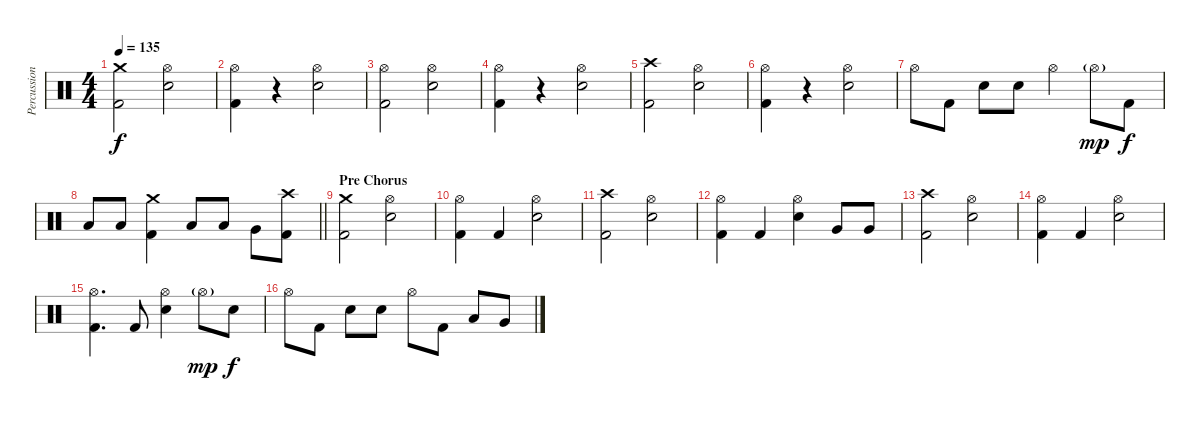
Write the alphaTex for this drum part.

\track ("Percussion" "Percussion") {instrument percussion}
\staff {score}
\articulation defaults
\ts (4 4)
\tempo 135
\clef neutral
\ks c
("Crash medium (hit)" "Kick (hit) 2").2{dy f} ("Hi-Hat (open)" "Electric Snare (hit)").2 |
("Hi-Hat (open)" "Kick (hit) 2").4 r.4 ("Hi-Hat (open)" "Electric Snare (hit)").2 |
("Hi-Hat (open)" "Kick (hit) 2").2 ("Hi-Hat (open)" "Electric Snare (hit)").2 |
("Hi-Hat (open)" "Kick (hit) 2").4 r.4 ("Hi-Hat (open)" "Electric Snare (hit)").2 |
("Crash high (hit)" "Kick (hit) 2").2 ("Hi-Hat (open)" "Electric Snare (hit)").2 |
("Hi-Hat (open)" "Kick (hit) 2").4 r.4 ("Hi-Hat (open)" "Electric Snare (hit)").2 |
"Hi-Hat (open)".8 "Kick (hit) 2".8 "Electric Snare (hit)".8 "Electric Snare (hit)".8 "Hi-Hat (open)".4 "Hi-Hat (open)"{g}.8{dy mp} "Kick (hit) 2".8{dy f} |
\barLineRight lightlight "Low Tom (hit)".8 "Low Tom (hit)".8
("Crash medium (hit)" "Kick (hit) 2").4 "Low Tom (hit)".8 "Low Tom (hit)".8 "Very Low Tom (hit)".8 ("Crash high (hit)" "Kick (hit) 2").8 |
\section ("" "Pre Chorus")
("Crash medium (hit)" "Kick (hit) 2").2 ("Hi-Hat (open)" "Electric Snare (hit)").2 |
("Hi-Hat (open)" "Kick (hit) 2").4 "Kick (hit) 2".4 ("Hi-Hat (open)" "Electric Snare (hit)").2 |
("Crash high (hit)" "Kick (hit) 2").2 ("Hi-Hat (open)" "Electric Snare (hit)").2 |
("Hi-Hat (open)" "Kick (hit) 2").4 "Kick (hit) 2".4 ("Hi-Hat (open)" "Electric Snare (hit)").4 "Very Low Tom (hit)".8 "Very Low Tom (hit)".8 |
("Crash high (hit)" "Kick (hit) 2").2 ("Hi-Hat (open)" "Electric Snare (hit)").2 |
("Hi-Hat (open)" "Kick (hit) 2").4 "Kick (hit) 2".4 ("Hi-Hat (open)" "Electric Snare (hit)").2 |
("Hi-Hat (open)" "Kick (hit) 2").4{d} "Kick (hit) 2".8 ("Hi-Hat (open)" "Electric Snare (hit)").4 "Hi-Hat (open)"{g}.8{dy mp} "Electric Snare (hit)".8{dy f} |
"Hi-Hat (open)".8 "Kick (hit) 2".8 "Electric Snare (hit)".8 "Electric Snare (hit)".8 "Hi-Hat (open)".8 "Kick (hit) 2".8 "Low Tom (hit)".8 "Very Low Tom (hit)".8
